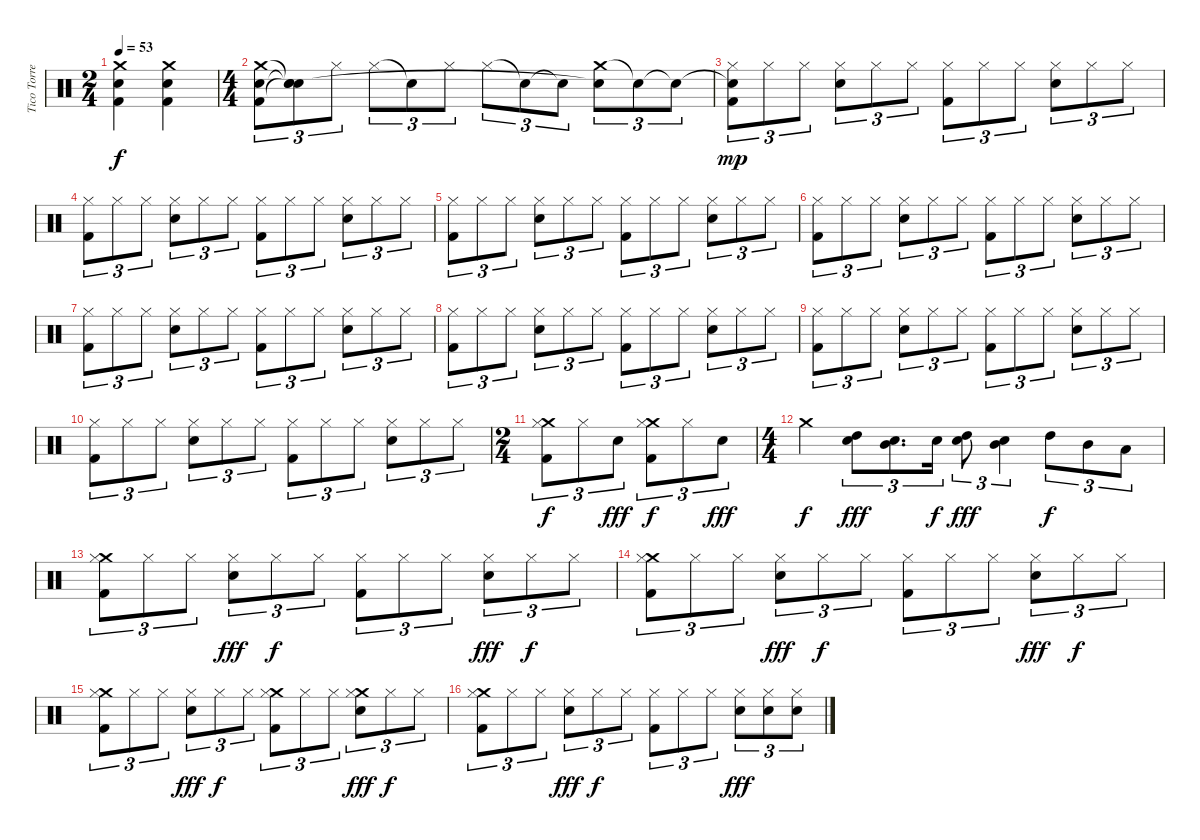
\track ("Tico Torres (Drums)" "Tico Torre") {instrument percussion}
\staff {score}
\articulation defaults
\ts (2 4)
\tempo 53
\clef neutral
\ks c
("Crash medium (hit)" "Kick (hit) 2" "Snare (hit) 2").4{dy f} ("Crash medium (hit)" "Kick (hit) 2" "Snare (hit) 2").4 |
\ts (4 4)
("Crash medium (hit)" "Kick (hit) 2" "Snare (hit) 2").8{tu (3 2)} ("Snare (hit)"{t} "Snare (hit)"{t} "Snare (hit)"{t}).8{tu (3 2)} "Hi-Hat (closed)".8{tu (3 2)} "Hi-Hat (closed)".8{tu (3 2)} "Snare (hit)"{t}.8{tu (3 2)} "Hi-Hat (closed)".8{tu (3 2)} "Hi-Hat (closed)".8{tu (3 2)} "Snare (hit)"{t}.8{tu (3 2)} "Snare (hit)"{t}.8{tu (3 2)} ("Crash medium (hit)" "Snare (hit)"{t}).8{tu (3 2) volume 2} "Snare (hit)"{t}.8{tu (3 2) volume 7} "Snare (hit)"{t}.8{tu (3 2) volume 10} |
("Snare (hit)"{t} "Hi-Hat (closed)" "Kick (hit) 2").8{tu (3 2) dy mp volume 12} "Hi-Hat (closed)".8{tu (3 2)} "Hi-Hat (closed)".8{tu (3 2)} ("Snare (hit) 2" "Hi-Hat (closed)").8{tu (3 2)} "Hi-Hat (closed)".8{tu (3 2)} "Hi-Hat (closed)".8{tu (3 2)} ("Hi-Hat (closed)" "Kick (hit) 2").8{tu (3 2)} "Hi-Hat (closed)".8{tu (3 2)} "Hi-Hat (closed)".8{tu (3 2)} ("Snare (hit) 2" "Hi-Hat (closed)").8{tu (3 2)} "Hi-Hat (closed)".8{tu (3 2)} "Hi-Hat (closed)".8{tu (3 2)} |
("Hi-Hat (closed)" "Kick (hit) 2").8{tu (3 2) volume 12} "Hi-Hat (closed)".8{tu (3 2)} "Hi-Hat (closed)".8{tu (3 2)} ("Snare (hit) 2" "Hi-Hat (closed)").8{tu (3 2)} "Hi-Hat (closed)".8{tu (3 2)} "Hi-Hat (closed)".8{tu (3 2)} ("Hi-Hat (closed)" "Kick (hit) 2").8{tu (3 2)} "Hi-Hat (closed)".8{tu (3 2)} "Hi-Hat (closed)".8{tu (3 2)} ("Snare (hit) 2" "Hi-Hat (closed)").8{tu (3 2)} "Hi-Hat (closed)".8{tu (3 2)} "Hi-Hat (closed)".8{tu (3 2)} |
("Hi-Hat (closed)" "Kick (hit) 2").8{tu (3 2) volume 12} "Hi-Hat (closed)".8{tu (3 2)} "Hi-Hat (closed)".8{tu (3 2)} ("Snare (hit) 2" "Hi-Hat (closed)").8{tu (3 2)} "Hi-Hat (closed)".8{tu (3 2)} "Hi-Hat (closed)".8{tu (3 2)} ("Hi-Hat (closed)" "Kick (hit) 2").8{tu (3 2)} "Hi-Hat (closed)".8{tu (3 2)} "Hi-Hat (closed)".8{tu (3 2)} ("Snare (hit) 2" "Hi-Hat (closed)").8{tu (3 2)} "Hi-Hat (closed)".8{tu (3 2)} "Hi-Hat (closed)".8{tu (3 2)} |
("Hi-Hat (closed)" "Kick (hit) 2").8{tu (3 2) volume 12} "Hi-Hat (closed)".8{tu (3 2)} "Hi-Hat (closed)".8{tu (3 2)} ("Snare (hit) 2" "Hi-Hat (closed)").8{tu (3 2)} "Hi-Hat (closed)".8{tu (3 2)} "Hi-Hat (closed)".8{tu (3 2)} ("Hi-Hat (closed)" "Kick (hit) 2").8{tu (3 2)} "Hi-Hat (closed)".8{tu (3 2)} "Hi-Hat (closed)".8{tu (3 2)} ("Snare (hit) 2" "Hi-Hat (closed)").8{tu (3 2)} "Hi-Hat (closed)".8{tu (3 2)} "Hi-Hat (closed)".8{tu (3 2)} |
("Hi-Hat (closed)" "Kick (hit) 2").8{tu (3 2) volume 12} "Hi-Hat (closed)".8{tu (3 2)} "Hi-Hat (closed)".8{tu (3 2)} ("Snare (hit) 2" "Hi-Hat (closed)").8{tu (3 2)} "Hi-Hat (closed)".8{tu (3 2)} "Hi-Hat (closed)".8{tu (3 2)} ("Hi-Hat (closed)" "Kick (hit) 2").8{tu (3 2)} "Hi-Hat (closed)".8{tu (3 2)} "Hi-Hat (closed)".8{tu (3 2)} ("Snare (hit) 2" "Hi-Hat (closed)").8{tu (3 2)} "Hi-Hat (closed)".8{tu (3 2)} "Hi-Hat (closed)".8{tu (3 2)} |
("Hi-Hat (closed)" "Kick (hit) 2").8{tu (3 2) volume 12} "Hi-Hat (closed)".8{tu (3 2)} "Hi-Hat (closed)".8{tu (3 2)} ("Snare (hit) 2" "Hi-Hat (closed)").8{tu (3 2)} "Hi-Hat (closed)".8{tu (3 2)} "Hi-Hat (closed)".8{tu (3 2)} ("Hi-Hat (closed)" "Kick (hit) 2").8{tu (3 2)} "Hi-Hat (closed)".8{tu (3 2)} "Hi-Hat (closed)".8{tu (3 2)} ("Snare (hit) 2" "Hi-Hat (closed)").8{tu (3 2)} "Hi-Hat (closed)".8{tu (3 2)} "Hi-Hat (closed)".8{tu (3 2)} |
("Hi-Hat (closed)" "Kick (hit) 2").8{tu (3 2) volume 12} "Hi-Hat (closed)".8{tu (3 2)} "Hi-Hat (closed)".8{tu (3 2)} ("Snare (hit) 2" "Hi-Hat (closed)").8{tu (3 2)} "Hi-Hat (closed)".8{tu (3 2)} "Hi-Hat (closed)".8{tu (3 2)} ("Hi-Hat (closed)" "Kick (hit) 2").8{tu (3 2)} "Hi-Hat (closed)".8{tu (3 2)} "Hi-Hat (closed)".8{tu (3 2)} ("Snare (hit) 2" "Hi-Hat (closed)").8{tu (3 2)} "Hi-Hat (closed)".8{tu (3 2)} "Hi-Hat (closed)".8{tu (3 2)} |
("Hi-Hat (closed)" "Kick (hit) 2").8{tu (3 2) volume 12} "Hi-Hat (closed)".8{tu (3 2)} "Hi-Hat (closed)".8{tu (3 2)} ("Snare (hit) 2" "Hi-Hat (closed)").8{tu (3 2)} "Hi-Hat (closed)".8{tu (3 2)} "Hi-Hat (closed)".8{tu (3 2)} ("Hi-Hat (closed)" "Kick (hit) 2").8{tu (3 2)} "Hi-Hat (closed)".8{tu (3 2)} "Hi-Hat (closed)".8{tu (3 2)} ("Snare (hit) 2" "Hi-Hat (closed)").8{tu (3 2)} "Hi-Hat (closed)".8{tu (3 2)} "Hi-Hat (closed)".8{tu (3 2)} |
\ts (2 4)
("Crash medium (hit)" "Hi-Hat (closed)" "Kick (hit) 2").8{tu (3 2) dy f} "Hi-Hat (closed)".8{tu (3 2)} "Snare (hit) 2".8{tu (3 2) dy fff} ("Crash medium (hit)" "Hi-Hat (closed)" "Kick (hit) 2").8{tu (3 2) dy f} "Hi-Hat (closed)".8{tu (3 2)} "Snare (hit) 2".8{tu (3 2) dy fff} |
\ts (4 4)
"Crash medium (hit)".4{dy f} ("High Tom (hit)" "Snare (hit) 2").8{tu (3 2) dy fff} ("Mid Tom (hit)" "Snare (hit) 2").8{d tu (3 2)} "Snare (hit) 2".16{tu (3 2) dy f} ("High Tom (hit)" "Snare (hit) 2").8{tu (3 2) dy fff} ("Mid Tom (hit)" "Snare (hit) 2").4{tu (3 2)} "High Tom (hit)".8{tu (3 2) dy f} "Mid Tom (hit)".8{tu (3 2)} "Low Tom (hit)".8{tu (3 2)} |
("Crash medium (hit)" "Hi-Hat (closed)" "Kick (hit) 2").8{tu (3 2)} "Hi-Hat (closed)".8{tu (3 2)} "Hi-Hat (closed)".8{tu (3 2)} ("Snare (hit) 2" "Hi-Hat (closed)").8{tu (3 2) dy fff} "Hi-Hat (closed)".8{tu (3 2) dy f} "Hi-Hat (closed)".8{tu (3 2)} ("Hi-Hat (closed)" "Kick (hit) 2").8{tu (3 2)} "Hi-Hat (closed)".8{tu (3 2)} "Hi-Hat (closed)".8{tu (3 2)} ("Snare (hit) 2" "Hi-Hat (closed)").8{tu (3 2) dy fff} "Hi-Hat (closed)".8{tu (3 2) dy f} "Hi-Hat (closed)".8{tu (3 2)} |
("Crash medium (hit)" "Hi-Hat (closed)" "Kick (hit) 2").8{tu (3 2)} "Hi-Hat (closed)".8{tu (3 2)} "Hi-Hat (closed)".8{tu (3 2)} ("Snare (hit) 2" "Hi-Hat (closed)").8{tu (3 2) dy fff} "Hi-Hat (closed)".8{tu (3 2) dy f} "Hi-Hat (closed)".8{tu (3 2)} ("Hi-Hat (closed)" "Kick (hit) 2").8{tu (3 2)} "Hi-Hat (closed)".8{tu (3 2)} "Hi-Hat (closed)".8{tu (3 2)} ("Snare (hit) 2" "Hi-Hat (closed)").8{tu (3 2) dy fff} "Hi-Hat (closed)".8{tu (3 2) dy f} "Hi-Hat (closed)".8{tu (3 2)} |
("Crash medium (hit)" "Hi-Hat (closed)" "Kick (hit) 2").8{tu (3 2)} "Hi-Hat (closed)".8{tu (3 2)} "Hi-Hat (closed)".8{tu (3 2)} ("Snare (hit) 2" "Hi-Hat (closed)").8{tu (3 2) dy fff} "Hi-Hat (closed)".8{tu (3 2) dy f} "Hi-Hat (closed)".8{tu (3 2)} ("Crash medium (hit)" "Hi-Hat (closed)" "Kick (hit) 2").8{tu (3 2)} "Hi-Hat (closed)".8{tu (3 2)} "Hi-Hat (closed)".8{tu (3 2)} ("Crash medium (hit)" "Snare (hit) 2" "Hi-Hat (closed)").8{tu (3 2) dy fff} "Hi-Hat (closed)".8{tu (3 2) dy f} "Hi-Hat (closed)".8{tu (3 2)} |
("Crash medium (hit)" "Hi-Hat (closed)" "Kick (hit) 2").8{tu (3 2)} "Hi-Hat (closed)".8{tu (3 2)} "Hi-Hat (closed)".8{tu (3 2)} ("Snare (hit) 2" "Hi-Hat (closed)").8{tu (3 2) dy fff} "Hi-Hat (closed)".8{tu (3 2) dy f} "Hi-Hat (closed)".8{tu (3 2)} ("Hi-Hat (closed)" "Kick (hit) 2").8{tu (3 2)} "Hi-Hat (closed)".8{tu (3 2)} "Hi-Hat (closed)".8{tu (3 2)} ("Snare (hit) 2" "Hi-Hat (closed)").8{tu (3 2) dy fff} ("Snare (hit) 2" "Hi-Hat (closed)").8{tu (3 2)} ("Snare (hit) 2" "Hi-Hat (closed)").8{tu (3 2)}
